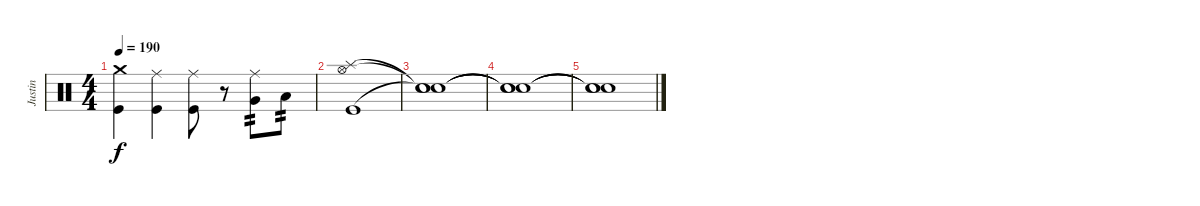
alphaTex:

\track ("Justin" "Justin") {instrument percussion}
\staff {score}
\articulation defaults
\ts (4 4)
\tempo 190
\clef neutral
\ks c
("Crash medium (hit)" "Kick (hit)").4{dy f} ("Ride (middle)" "Kick (hit)").4 ("Ride (middle)" "Kick (hit)").8 r.8 ("Ride (middle)" "Very Low Tom (hit)").8{tp 2} "Low Floor Tom (hit)".8{tp 2} |
("Splash (hit)" "Hi-Hat (open)" "Kick (hit)").1 |
("Snare (hit)"{t} "Snare (hit)"{t} "Snare (hit)"{t}).1 |
("Snare (hit)"{t} "Snare (hit)"{t} "Snare (hit)"{t}).1 |
("Snare (hit)"{t} "Snare (hit)"{t} "Snare (hit)"{t}).1
